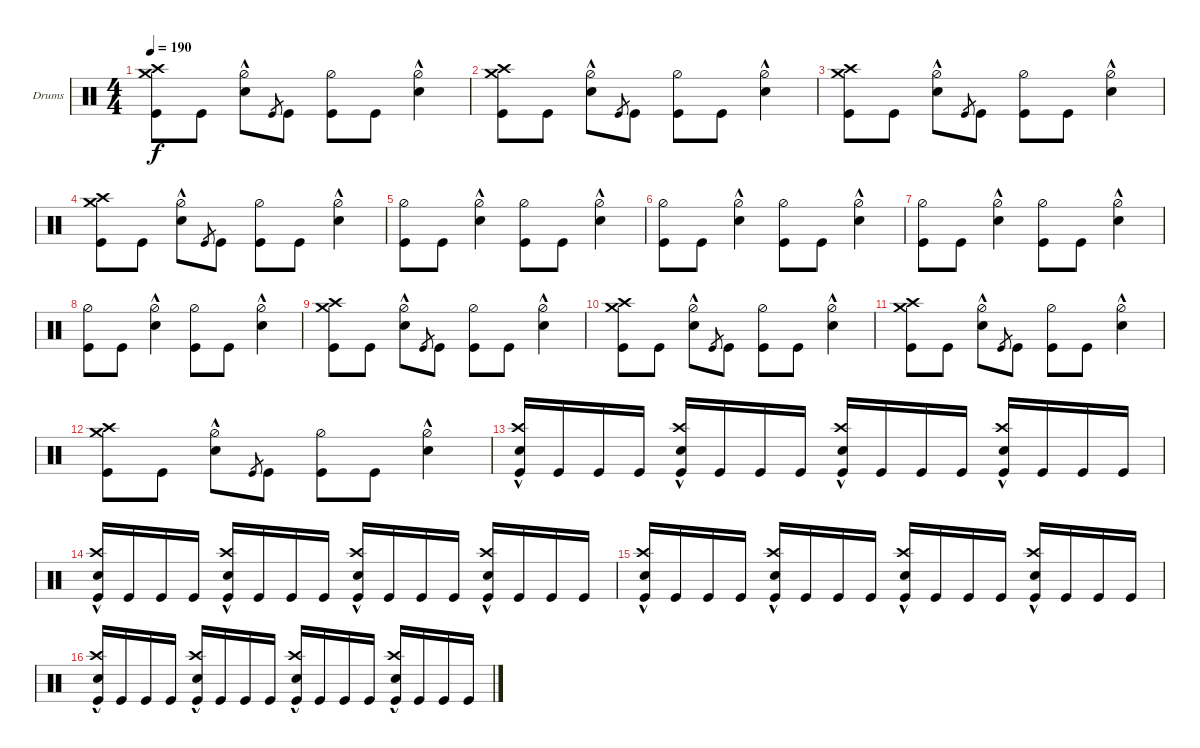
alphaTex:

\bracketExtendMode groupsimilarinstruments
\firstSystemTrackNameOrientation horizontal
\otherSystemsTrackNameOrientation horizontal
\track ("Drumkit" "Drums") {instrument percussion}
\staff {score}
\articulation defaults
\ts (4 4)
\tempo 190
\clef neutral
\scale
0.333333
\ks c
("Kick (hit)" "Crash high (hit)" "Crash medium (hit)").8{dy f} "Kick (hit)".8 ("Snare (hit) 2"{hac} "Hi-Hat (half)").8 "Kick (hit)".8{gr} "Kick (hit)".8 ("Kick (hit)" "Hi-Hat (half)").8 "Kick (hit)".8 ("Snare (hit) 2"{hac} "Hi-Hat (half)").4 |
\scale
0.333333 ("Kick (hit)" "Crash high (hit)" "Crash medium (hit)").8 "Kick (hit)".8 ("Snare (hit) 2"{hac} "Hi-Hat (half)").8 "Kick (hit)".8{gr} "Kick (hit)".8 ("Kick (hit)" "Hi-Hat (half)").8 "Kick (hit)".8 ("Snare (hit) 2"{hac} "Hi-Hat (half)").4 |
\scale
0.333333 ("Kick (hit)" "Crash high (hit)" "Crash medium (hit)").8 "Kick (hit)".8 ("Snare (hit) 2"{hac} "Hi-Hat (half)").8 "Kick (hit)".8{gr} "Kick (hit)".8 ("Kick (hit)" "Hi-Hat (half)").8 "Kick (hit)".8 ("Snare (hit) 2"{hac} "Hi-Hat (half)").4 |
\scale
0.333333 ("Kick (hit)" "Crash high (hit)" "Crash medium (hit)").8 "Kick (hit)".8 ("Snare (hit) 2"{hac} "Hi-Hat (half)").8 "Kick (hit)".8{gr} "Kick (hit)".8 ("Kick (hit)" "Hi-Hat (half)").8 "Kick (hit)".8 ("Snare (hit) 2"{hac} "Hi-Hat (half)").4 |
\scale
0.333333 ("Kick (hit)" "Hi-Hat (half)").8 "Kick (hit)".8 ("Snare (hit) 2"{hac} "Hi-Hat (half)").4 ("Kick (hit)" "Hi-Hat (half)").8 "Kick (hit)".8 ("Snare (hit) 2"{hac} "Hi-Hat (half)").4 |
\scale
0.333333 ("Kick (hit)" "Hi-Hat (half)").8 "Kick (hit)".8 ("Snare (hit) 2"{hac} "Hi-Hat (half)").4 ("Kick (hit)" "Hi-Hat (half)").8 "Kick (hit)".8 ("Snare (hit) 2"{hac} "Hi-Hat (half)").4 |
\scale
0.333333 ("Kick (hit)" "Hi-Hat (half)").8 "Kick (hit)".8 ("Snare (hit) 2"{hac} "Hi-Hat (half)").4 ("Kick (hit)" "Hi-Hat (half)").8 "Kick (hit)".8 ("Snare (hit) 2"{hac} "Hi-Hat (half)").4 |
\scale
0.333333 ("Kick (hit)" "Hi-Hat (half)").8 "Kick (hit)".8 ("Snare (hit) 2"{hac} "Hi-Hat (half)").4 ("Kick (hit)" "Hi-Hat (half)").8 "Kick (hit)".8 ("Snare (hit) 2"{hac} "Hi-Hat (half)").4 |
\scale
0.333333 ("Kick (hit)" "Crash high (hit)" "Crash medium (hit)").8 "Kick (hit)".8 ("Snare (hit) 2"{hac} "Hi-Hat (half)").8 "Kick (hit)".8{gr} "Kick (hit)".8 ("Kick (hit)" "Hi-Hat (half)").8 "Kick (hit)".8 ("Snare (hit) 2"{hac} "Hi-Hat (half)").4 |
\scale
0.333333 ("Kick (hit)" "Crash high (hit)" "Crash medium (hit)").8 "Kick (hit)".8 ("Snare (hit) 2"{hac} "Hi-Hat (half)").8 "Kick (hit)".8{gr} "Kick (hit)".8 ("Kick (hit)" "Hi-Hat (half)").8 "Kick (hit)".8 ("Snare (hit) 2"{hac} "Hi-Hat (half)").4 |
\scale
0.333333 ("Kick (hit)" "Crash high (hit)" "Crash medium (hit)").8 "Kick (hit)".8 ("Snare (hit) 2"{hac} "Hi-Hat (half)").8 "Kick (hit)".8{gr} "Kick (hit)".8 ("Kick (hit)" "Hi-Hat (half)").8 "Kick (hit)".8 ("Snare (hit) 2"{hac} "Hi-Hat (half)").4 |
\scale
0.333333 ("Kick (hit)" "Crash high (hit)" "Crash medium (hit)").8 "Kick (hit)".8 ("Snare (hit) 2"{hac} "Hi-Hat (half)").8 "Kick (hit)".8{gr} "Kick (hit)".8 ("Kick (hit)" "Hi-Hat (half)").8 "Kick (hit)".8 ("Snare (hit) 2"{hac} "Hi-Hat (half)").4 |
\scale
0.333333 ("Kick (hit)" "Snare (hit) 2"{hac} "Crash high (hit)").16 "Kick (hit)".16 "Kick (hit)".16 "Kick (hit)".16 ("Kick (hit)" "Snare (hit) 2"{hac} "Crash high (hit)").16 "Kick (hit)".16 "Kick (hit)".16 "Kick (hit)".16 ("Kick (hit)" "Snare (hit) 2"{hac} "Crash high (hit)").16 "Kick (hit)".16 "Kick (hit)".16 "Kick (hit)".16 ("Kick (hit)" "Snare (hit) 2"{hac} "Crash high (hit)").16 "Kick (hit)".16 "Kick (hit)".16 "Kick (hit)".16 |
\scale
0.333333 ("Kick (hit)" "Snare (hit) 2"{hac} "Crash high (hit)").16 "Kick (hit)".16 "Kick (hit)".16 "Kick (hit)".16 ("Kick (hit)" "Snare (hit) 2"{hac} "Crash high (hit)").16 "Kick (hit)".16 "Kick (hit)".16 "Kick (hit)".16 ("Kick (hit)" "Snare (hit) 2"{hac} "Crash high (hit)").16 "Kick (hit)".16 "Kick (hit)".16 "Kick (hit)".16 ("Kick (hit)" "Snare (hit) 2"{hac} "Crash high (hit)").16 "Kick (hit)".16 "Kick (hit)".16 "Kick (hit)".16 |
\scale
0.333333 ("Kick (hit)" "Snare (hit) 2"{hac} "Crash high (hit)").16 "Kick (hit)".16 "Kick (hit)".16 "Kick (hit)".16 ("Kick (hit)" "Snare (hit) 2"{hac} "Crash high (hit)").16 "Kick (hit)".16 "Kick (hit)".16 "Kick (hit)".16 ("Kick (hit)" "Snare (hit) 2"{hac} "Crash high (hit)").16 "Kick (hit)".16 "Kick (hit)".16 "Kick (hit)".16 ("Kick (hit)" "Snare (hit) 2"{hac} "Crash high (hit)").16 "Kick (hit)".16 "Kick (hit)".16 "Kick (hit)".16 |
\scale
0.333333 ("Kick (hit)" "Snare (hit) 2"{hac} "Crash high (hit)").16 "Kick (hit)".16 "Kick (hit)".16 "Kick (hit)".16 ("Kick (hit)" "Snare (hit) 2"{hac} "Crash high (hit)").16 "Kick (hit)".16 "Kick (hit)".16 "Kick (hit)".16 ("Kick (hit)" "Snare (hit) 2"{hac} "Crash high (hit)").16 "Kick (hit)".16 "Kick (hit)".16 "Kick (hit)".16 ("Kick (hit)" "Snare (hit) 2"{hac} "Crash high (hit)").16 "Kick (hit)".16 "Kick (hit)".16 "Kick (hit)".16
